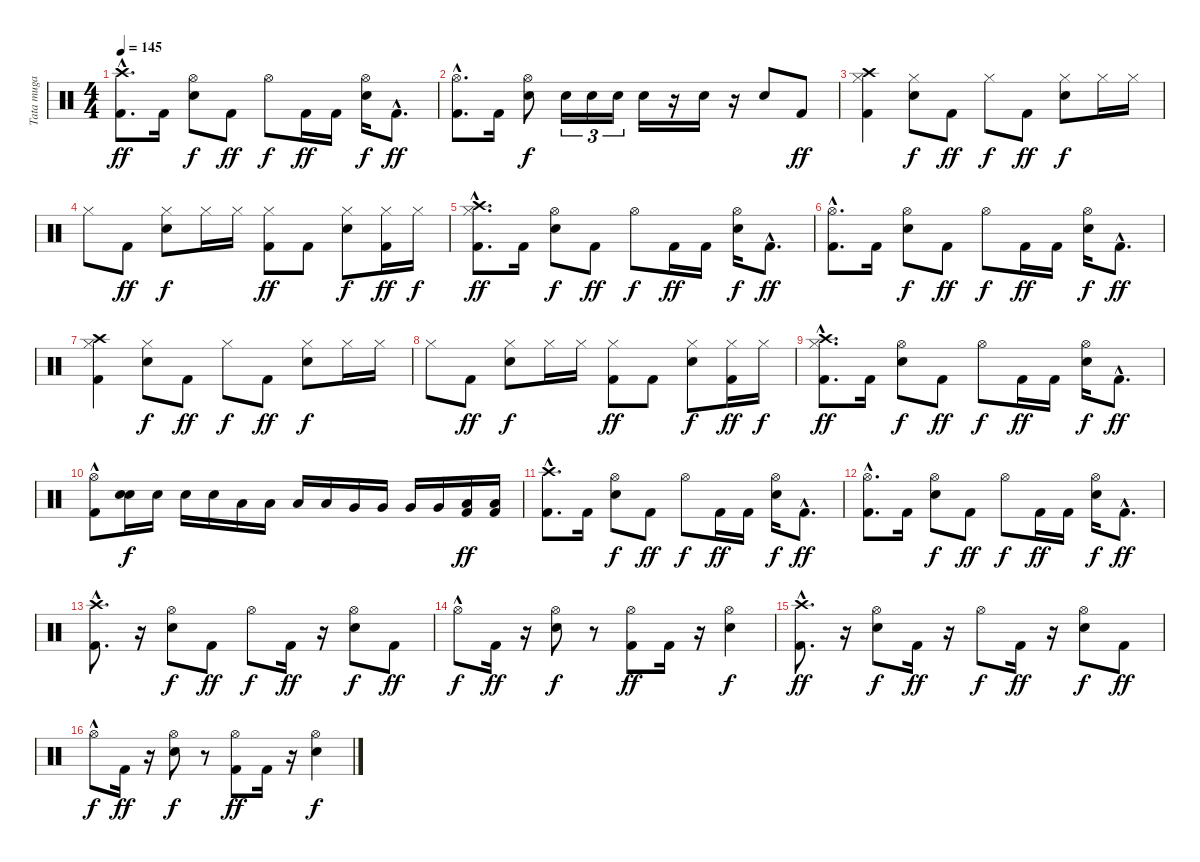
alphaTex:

\track ("Tata muga" "Tata muga") {instrument percussion}
\staff {score}
\articulation defaults
\ts (4 4)
\tempo 145
\clef neutral
\ks c
("Crash high (hit)"{hac} "Kick (hit) 2"{hac}).8{d dy ff} "Kick (hit) 2".16 ("Hi-Hat (open)" "Electric Snare (hit)").8{dy f} "Kick (hit) 2".8{dy ff} "Hi-Hat (open)".8{dy f} "Kick (hit) 2".16{dy ff} "Kick (hit) 2".16 ("Hi-Hat (open)" "Electric Snare (hit)").16{dy f} "Kick (hit) 2"{hac}.8{d dy ff} |
("Hi-Hat (open)"{hac} "Kick (hit) 2"{hac}).8{d} "Kick (hit) 2".16 ("Hi-Hat (open)" "Electric Snare (hit)").8{dy f} "Electric Snare (hit)".16{tu (3 2)} "Electric Snare (hit)".16{tu (3 2)} "Electric Snare (hit)".16{tu (3 2)} "Electric Snare (hit)".16 r.16 "Electric Snare (hit)".16 r.16 "Electric Snare (hit)".8 "Kick (hit) 2".8{dy ff} |
("Crash high (hit)" "Hi-Hat (closed)" "Kick (hit) 2").4 ("Hi-Hat (closed)" "Electric Snare (hit)").8{dy f} "Kick (hit) 2".8{dy ff} "Hi-Hat (closed)".8{dy f} "Kick (hit) 2".8{dy ff} ("Hi-Hat (closed)" "Electric Snare (hit)").8{dy f} "Hi-Hat (closed)".16 "Hi-Hat (closed)".16 |
"Hi-Hat (closed)".8 "Kick (hit) 2".8{dy ff} ("Hi-Hat (closed)" "Electric Snare (hit)").8{dy f} "Hi-Hat (closed)".16 "Hi-Hat (closed)".16 ("Hi-Hat (closed)" "Kick (hit) 2").8{dy ff} "Kick (hit) 2".8 ("Hi-Hat (closed)" "Electric Snare (hit)").8{dy f} ("Hi-Hat (closed)" "Kick (hit) 2").16{dy ff} "Hi-Hat (closed)".16{dy f} |
("Hi-Hat (closed)" "Crash high (hit)"{hac} "Kick (hit) 2"{hac}).8{d dy ff} "Kick (hit) 2".16 ("Hi-Hat (open)" "Electric Snare (hit)").8{dy f} "Kick (hit) 2".8{dy ff} "Hi-Hat (open)".8{dy f} "Kick (hit) 2".16{dy ff} "Kick (hit) 2".16 ("Hi-Hat (open)" "Electric Snare (hit)").16{dy f} "Kick (hit) 2"{hac}.8{d dy ff} |
("Hi-Hat (open)"{hac} "Kick (hit) 2"{hac}).8{d} "Kick (hit) 2".16 ("Hi-Hat (open)" "Electric Snare (hit)").8{dy f} "Kick (hit) 2".8{dy ff} "Hi-Hat (open)".8{dy f} "Kick (hit) 2".16{dy ff} "Kick (hit) 2".16 ("Hi-Hat (open)" "Electric Snare (hit)").16{dy f} "Kick (hit) 2"{hac}.8{d dy ff} |
("Crash high (hit)" "Hi-Hat (closed)" "Kick (hit) 2").4 ("Hi-Hat (closed)" "Electric Snare (hit)").8{dy f} "Kick (hit) 2".8{dy ff} "Hi-Hat (closed)".8{dy f} "Kick (hit) 2".8{dy ff} ("Hi-Hat (closed)" "Electric Snare (hit)").8{dy f} "Hi-Hat (closed)".16 "Hi-Hat (closed)".16 |
"Hi-Hat (closed)".8 "Kick (hit) 2".8{dy ff} ("Hi-Hat (closed)" "Electric Snare (hit)").8{dy f} "Hi-Hat (closed)".16 "Hi-Hat (closed)".16 ("Hi-Hat (closed)" "Kick (hit) 2").8{dy ff} "Kick (hit) 2".8 ("Hi-Hat (closed)" "Electric Snare (hit)").8{dy f} ("Hi-Hat (closed)" "Kick (hit) 2").16{dy ff} "Hi-Hat (closed)".16{dy f} |
("Hi-Hat (closed)" "Crash high (hit)"{hac} "Kick (hit) 2"{hac}).8{d dy ff} "Kick (hit) 2".16 ("Hi-Hat (open)" "Electric Snare (hit)").8{dy f} "Kick (hit) 2".8{dy ff} "Hi-Hat (open)".8{dy f} "Kick (hit) 2".16{dy ff} "Kick (hit) 2".16 ("Hi-Hat (open)" "Electric Snare (hit)").16{dy f} "Kick (hit) 2"{hac}.8{d dy ff} |
("Hi-Hat (open)"{hac} "Kick (hit) 2"{hac}).8 ("Electric Snare (hit)" "Electric Snare (hit)").16{dy f} "Electric Snare (hit)".16 "Electric Snare (hit)".16 "Electric Snare (hit)".16 "Low Tom (hit)".16 "Low Tom (hit)".16 "Low Tom (hit)".16 "Low Tom (hit)".16 "Very Low Tom (hit)".16 "Very Low Tom (hit)".16 "Very Low Tom (hit)".16 "Very Low Tom (hit)".16 ("Low Floor Tom (hit)" "Kick (hit) 2").16{dy ff} ("Low Floor Tom (hit)" "Kick (hit) 2").16 |
("Crash high (hit)"{hac} "Kick (hit) 2"{hac}).8{d} "Kick (hit) 2".16 ("Hi-Hat (open)" "Electric Snare (hit)").8{dy f} "Kick (hit) 2".8{dy ff} "Hi-Hat (open)".8{dy f} "Kick (hit) 2".16{dy ff} "Kick (hit) 2".16 ("Hi-Hat (open)" "Electric Snare (hit)").16{dy f} "Kick (hit) 2"{hac}.8{d dy ff} |
("Hi-Hat (open)"{hac} "Kick (hit) 2"{hac}).8{d} "Kick (hit) 2".16 ("Hi-Hat (open)" "Electric Snare (hit)").8{dy f} "Kick (hit) 2".8{dy ff} "Hi-Hat (open)".8{dy f} "Kick (hit) 2".16{dy ff} "Kick (hit) 2".16 ("Hi-Hat (open)" "Electric Snare (hit)").16{dy f} "Kick (hit) 2"{hac}.8{d dy ff} |
("Crash high (hit)"{hac} "Kick (hit) 2"{hac}).8{d} r.16 ("Hi-Hat (open)" "Electric Snare (hit)").8{dy f} "Kick (hit) 2".8{dy ff} "Hi-Hat (open)".8{dy f} "Kick (hit) 2".16{dy ff} r.16 ("Hi-Hat (open)" "Electric Snare (hit)").8{dy f} "Kick (hit) 2".8{dy ff} |
"Hi-Hat (open)"{hac}.8{dy f} "Kick (hit) 2".16{dy ff} r.16 ("Hi-Hat (open)" "Electric Snare (hit)").8{dy f} r.8 ("Hi-Hat (open)" "Kick (hit) 2").8{dy ff} "Kick (hit) 2".16 r.16 ("Hi-Hat (open)" "Electric Snare (hit)").4{dy f} |
("Crash high (hit)"{hac} "Kick (hit) 2"{hac}).8{d dy ff} r.16 ("Hi-Hat (open)" "Electric Snare (hit)").8{dy f} "Kick (hit) 2".16{dy ff} r.16 "Hi-Hat (open)".8{dy f} "Kick (hit) 2".16{dy ff} r.16 ("Hi-Hat (open)" "Electric Snare (hit)").8{dy f} "Kick (hit) 2".8{dy ff} |
"Hi-Hat (open)"{hac}.8{dy f} "Kick (hit) 2".16{dy ff} r.16 ("Hi-Hat (open)" "Electric Snare (hit)").8{dy f} r.8 ("Hi-Hat (open)" "Kick (hit) 2").8{dy ff} "Kick (hit) 2".16 r.16 ("Hi-Hat (open)" "Electric Snare (hit)").4{dy f}
